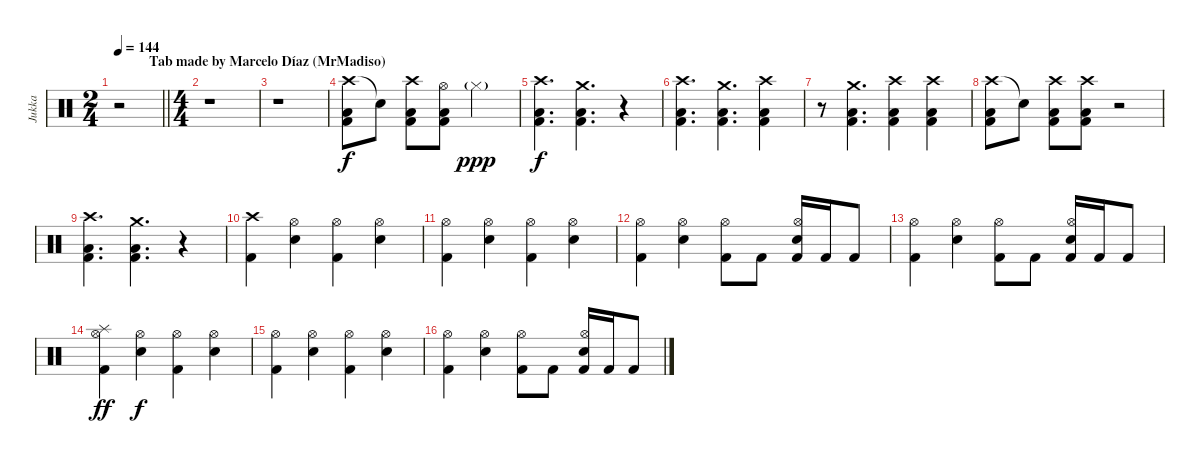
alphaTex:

\track ("Jukka" "Jukka") {instrument percussion}
\staff {score}
\articulation defaults
\ts (2 4)
\section ("" "          Tab made by Marcelo Díaz (MrMadiso)")
\tempo 144
\clef neutral
\barLineRight lightlight
\ks c
r.2{dy f} |
\ts (4 4)
r.1 |
r.1 |
("Crash high (hit)" "Low Floor Tom (hit)" "Kick (hit) 2").8 "Snare (hit)"{t}.8 ("Crash high (hit)" "Low Floor Tom (hit)" "Kick (hit) 2").8 ("Hi-Hat (open)" "Low Floor Tom (hit)" "Kick (hit) 2").8 "Hi-Hat (closed)"{g}.2{dy ppp} |
("Crash high (hit)" "Low Floor Tom (hit)" "Kick (hit) 2").4{d dy f} ("Crash medium (hit)" "Low Floor Tom (hit)" "Kick (hit) 2").4{d} r.4 |
("Crash high (hit)" "Low Floor Tom (hit)" "Kick (hit) 2").4{d} ("Crash medium (hit)" "Low Floor Tom (hit)" "Kick (hit) 2").4{d} ("Crash high (hit)" "Low Floor Tom (hit)" "Kick (hit) 2").4 |
r.8 ("Crash medium (hit)" "Low Floor Tom (hit)" "Kick (hit) 2").4{d} ("Crash high (hit)" "Low Floor Tom (hit)" "Kick (hit) 2").4 ("Crash high (hit)" "Low Floor Tom (hit)" "Kick (hit) 2").4 |
("Crash high (hit)" "Low Floor Tom (hit)" "Kick (hit) 2").8 "Snare (hit)"{t}.8 ("Crash high (hit)" "Low Floor Tom (hit)" "Kick (hit) 2").8 ("Crash high (hit)" "Low Floor Tom (hit)" "Kick (hit) 2").8 r.2 |
("Crash high (hit)" "Low Floor Tom (hit)" "Kick (hit) 2").4{d} ("Crash medium (hit)" "Low Floor Tom (hit)" "Kick (hit) 2").4{d} r.4 |
("Crash high (hit)" "Kick (hit) 2").4 ("Hi-Hat (open)" "Electric Snare (hit)").4 ("Hi-Hat (open)" "Kick (hit) 2").4 ("Hi-Hat (open)" "Electric Snare (hit)").4 |
("Hi-Hat (open)" "Kick (hit) 2").4 ("Hi-Hat (open)" "Electric Snare (hit)").4 ("Hi-Hat (open)" "Kick (hit) 2").4 ("Hi-Hat (open)" "Electric Snare (hit)").4 |
("Hi-Hat (open)" "Kick (hit) 2").4 ("Hi-Hat (open)" "Electric Snare (hit)").4 ("Hi-Hat (open)" "Kick (hit) 2").8 "Kick (hit) 2".8 ("Hi-Hat (open)" "Electric Snare (hit)" "Kick (hit) 2").16 "Kick (hit) 2".16 "Kick (hit) 2".8 |
("Hi-Hat (open)" "Kick (hit) 2").4 ("Hi-Hat (open)" "Electric Snare (hit)").4 ("Hi-Hat (open)" "Kick (hit) 2").8 "Kick (hit) 2".8 ("Hi-Hat (open)" "Electric Snare (hit)" "Kick (hit) 2").16 "Kick (hit) 2".16 "Kick (hit) 2".8 |
("Hi-Hat (open)" "Splash (hit)" "Kick (hit) 2").4{dy ff} ("Hi-Hat (open)" "Electric Snare (hit)").4{dy f} ("Hi-Hat (open)" "Kick (hit) 2").4 ("Hi-Hat (open)" "Electric Snare (hit)").4 |
("Hi-Hat (open)" "Kick (hit) 2").4 ("Hi-Hat (open)" "Electric Snare (hit)").4 ("Hi-Hat (open)" "Kick (hit) 2").4 ("Hi-Hat (open)" "Electric Snare (hit)").4 |
("Hi-Hat (open)" "Kick (hit) 2").4 ("Hi-Hat (open)" "Electric Snare (hit)").4 ("Hi-Hat (open)" "Kick (hit) 2").8 "Kick (hit) 2".8 ("Hi-Hat (open)" "Electric Snare (hit)" "Kick (hit) 2").16 "Kick (hit) 2".16 "Kick (hit) 2".8
